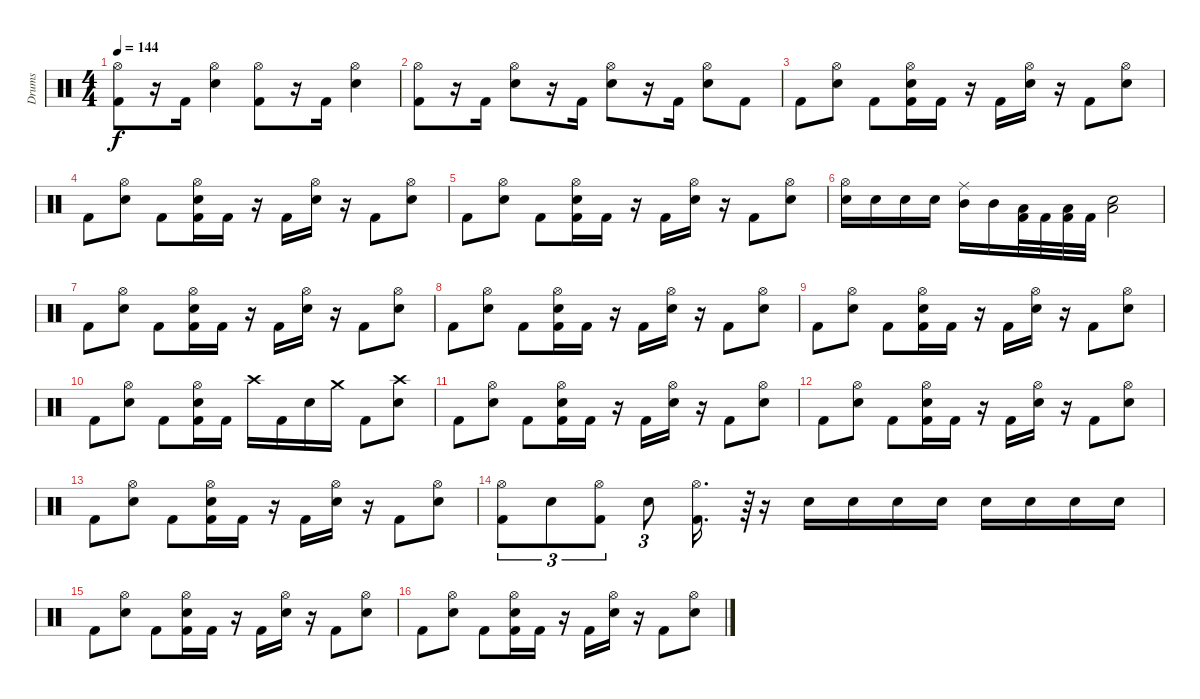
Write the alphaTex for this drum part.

\track ("Drums" "Drums") {instrument percussion}
\staff {score}
\articulation defaults
\ts (4 4)
\tempo 144
\clef neutral
\ks c
("Hi-Hat (open)" "Kick (hit) 2").8{dy f} r.16 "Kick (hit) 2".16 ("Hi-Hat (open)" "Snare (hit) 2").4 ("Hi-Hat (open)" "Kick (hit) 2").8 r.16 "Kick (hit) 2".16 ("Hi-Hat (open)" "Snare (hit) 2").4 |
("Hi-Hat (open)" "Kick (hit) 2").8 r.16 "Kick (hit) 2".16 ("Hi-Hat (open)" "Snare (hit) 2").8 r.16 "Kick (hit) 2".16 ("Hi-Hat (open)" "Snare (hit) 2").8 r.16 "Kick (hit) 2".16 ("Hi-Hat (open)" "Snare (hit) 2").8 "Kick (hit) 2".8 |
"Kick (hit) 2".8 ("Hi-Hat (open)" "Snare (hit) 2").8 "Kick (hit) 2".8 ("Hi-Hat (open)" "Snare (hit) 2" "Kick (hit) 2").16 "Kick (hit) 2".16 r.16 "Kick (hit) 2".16 ("Hi-Hat (open)" "Snare (hit) 2").16 r.16 "Kick (hit) 2".8 ("Hi-Hat (open)" "Snare (hit) 2").8 |
"Kick (hit) 2".8 ("Hi-Hat (open)" "Snare (hit) 2").8 "Kick (hit) 2".8 ("Hi-Hat (open)" "Snare (hit) 2" "Kick (hit) 2").16 "Kick (hit) 2".16 r.16 "Kick (hit) 2".16 ("Hi-Hat (open)" "Snare (hit) 2").16 r.16 "Kick (hit) 2".8 ("Hi-Hat (open)" "Snare (hit) 2").8 |
"Kick (hit) 2".8 ("Hi-Hat (open)" "Snare (hit) 2").8 "Kick (hit) 2".8 ("Hi-Hat (open)" "Snare (hit) 2" "Kick (hit) 2").16 "Kick (hit) 2".16 r.16 "Kick (hit) 2".16 ("Hi-Hat (open)" "Snare (hit) 2").16 r.16 "Kick (hit) 2".8 ("Hi-Hat (open)" "Snare (hit) 2").8 |
("Hi-Hat (open)" "Electric Snare (hit)").16 "Electric Snare (hit)".16 "Electric Snare (hit)".16 "Electric Snare (hit)".16 ("Ride (middle)" "Mid Tom (hit)").16 "Mid Tom (hit)".16 ("Low Tom (hit)" "Kick (hit) 2").32 "Kick (hit) 2".32 ("Low Tom (hit)" "Kick (hit) 2").32 "Kick (hit) 2".32 ("Low Floor Tom (hit)" "Snare (hit) 2").2 |
"Kick (hit) 2".8 ("Hi-Hat (open)" "Snare (hit) 2").8 "Kick (hit) 2".8 ("Hi-Hat (open)" "Snare (hit) 2" "Kick (hit) 2").16 "Kick (hit) 2".16 r.16 "Kick (hit) 2".16 ("Hi-Hat (open)" "Snare (hit) 2").16 r.16 "Kick (hit) 2".8 ("Hi-Hat (open)" "Snare (hit) 2").8 |
"Kick (hit) 2".8 ("Hi-Hat (open)" "Snare (hit) 2").8 "Kick (hit) 2".8 ("Hi-Hat (open)" "Snare (hit) 2" "Kick (hit) 2").16 "Kick (hit) 2".16 r.16 "Kick (hit) 2".16 ("Hi-Hat (open)" "Snare (hit) 2").16 r.16 "Kick (hit) 2".8 ("Hi-Hat (open)" "Snare (hit) 2").8 |
"Kick (hit) 2".8 ("Hi-Hat (open)" "Snare (hit) 2").8 "Kick (hit) 2".8 ("Hi-Hat (open)" "Snare (hit) 2" "Kick (hit) 2").16 "Kick (hit) 2".16 r.16 "Kick (hit) 2".16 ("Hi-Hat (open)" "Snare (hit) 2").16 r.16 "Kick (hit) 2".8 ("Hi-Hat (open)" "Snare (hit) 2").8 |
"Kick (hit) 2".8 ("Hi-Hat (open)" "Snare (hit) 2").8 "Kick (hit) 2".8 ("Hi-Hat (open)" "Snare (hit) 2" "Kick (hit) 2").16 "Kick (hit) 2".16 "Crash high (hit)".16 "Kick (hit) 2".16 "Snare (hit) 2".16 "Crash medium (hit)".16 "Kick (hit) 2".8 ("Crash high (hit)" "Snare (hit) 2").8 |
"Kick (hit) 2".8 ("Hi-Hat (open)" "Snare (hit) 2").8 "Kick (hit) 2".8 ("Hi-Hat (open)" "Snare (hit) 2" "Kick (hit) 2").16 "Kick (hit) 2".16 r.16 "Kick (hit) 2".16 ("Hi-Hat (open)" "Snare (hit) 2").16 r.16 "Kick (hit) 2".8 ("Hi-Hat (open)" "Snare (hit) 2").8 |
"Kick (hit) 2".8 ("Hi-Hat (open)" "Snare (hit) 2").8 "Kick (hit) 2".8 ("Hi-Hat (open)" "Snare (hit) 2" "Kick (hit) 2").16 "Kick (hit) 2".16 r.16 "Kick (hit) 2".16 ("Hi-Hat (open)" "Snare (hit) 2").16 r.16 "Kick (hit) 2".8 ("Hi-Hat (open)" "Snare (hit) 2").8 |
"Kick (hit) 2".8 ("Hi-Hat (open)" "Snare (hit) 2").8 "Kick (hit) 2".8 ("Hi-Hat (open)" "Snare (hit) 2" "Kick (hit) 2").16 "Kick (hit) 2".16 r.16 "Kick (hit) 2".16 ("Hi-Hat (open)" "Snare (hit) 2").16 r.16 "Kick (hit) 2".8 ("Hi-Hat (open)" "Snare (hit) 2").8 |
("Hi-Hat (open)" "Kick (hit) 2").8{tu (3 2)} "Snare (hit) 2".8{tu (3 2)} ("Hi-Hat (open)" "Kick (hit) 2").8{tu (3 2)} "Snare (hit) 2".8{tu (3 2)} ("Hi-Hat (open)" "Kick (hit) 2").16{d} r.64{tu (3 2)} r.16 "Snare (hit) 2".16 "Snare (hit) 2".16 "Snare (hit) 2".16 "Snare (hit) 2".16 "Snare (hit) 2".16 "Snare (hit) 2".16 "Snare (hit) 2".16 "Snare (hit) 2".16 |
"Kick (hit) 2".8 ("Hi-Hat (open)" "Snare (hit) 2").8 "Kick (hit) 2".8 ("Hi-Hat (open)" "Snare (hit) 2" "Kick (hit) 2").16 "Kick (hit) 2".16 r.16 "Kick (hit) 2".16 ("Hi-Hat (open)" "Snare (hit) 2").16 r.16 "Kick (hit) 2".8 ("Hi-Hat (open)" "Snare (hit) 2").8 |
"Kick (hit) 2".8 ("Hi-Hat (open)" "Snare (hit) 2").8 "Kick (hit) 2".8 ("Hi-Hat (open)" "Snare (hit) 2" "Kick (hit) 2").16 "Kick (hit) 2".16 r.16 "Kick (hit) 2".16 ("Hi-Hat (open)" "Snare (hit) 2").16 r.16 "Kick (hit) 2".8 ("Hi-Hat (open)" "Snare (hit) 2").8
